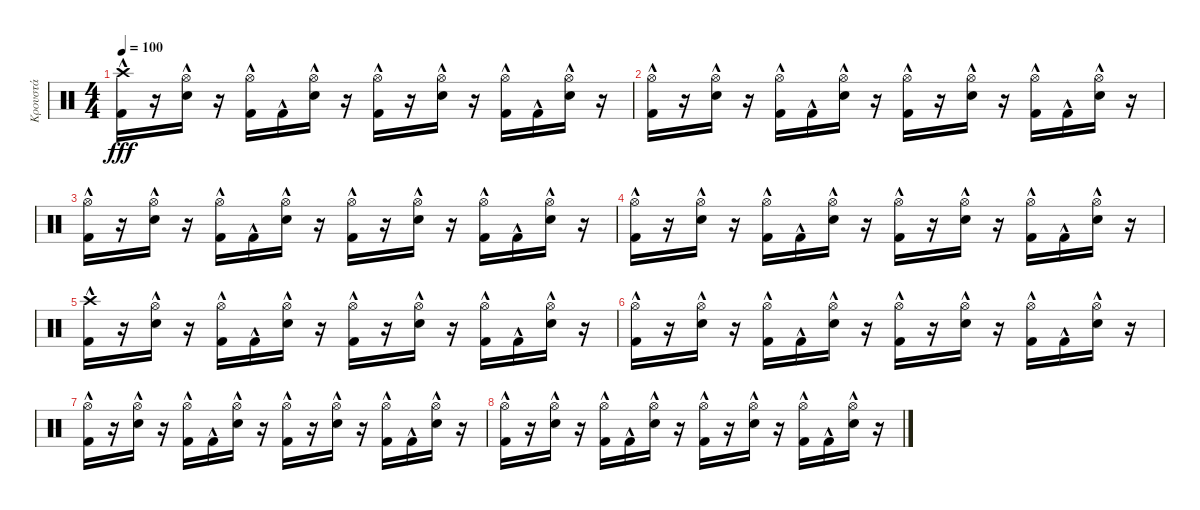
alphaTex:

\track ("Κρουστά" "Κρουστά") {instrument percussion}
\staff {score}
\articulation defaults
\ts (4 4)
\tempo 100
\clef neutral
\ks c
("Crash high (hit)" "Kick (hit) 2"{hac}).16{dy fff} r.16 ("Hi-Hat (open)" "Electric Snare (hit)"{hac}).16 r.16 ("Hi-Hat (open)" "Kick (hit) 2"{hac}).16 "Kick (hit) 2"{hac}.16 ("Hi-Hat (open)" "Electric Snare (hit)"{hac}).16 r.16 ("Hi-Hat (open)" "Kick (hit) 2"{hac}).16 r.16 ("Hi-Hat (open)" "Electric Snare (hit)"{hac}).16 r.16 ("Hi-Hat (open)" "Kick (hit) 2"{hac}).16 "Kick (hit) 2"{hac}.16 ("Hi-Hat (open)" "Electric Snare (hit)"{hac}).16 r.16 |
("Hi-Hat (open)" "Kick (hit) 2"{hac}).16 r.16 ("Hi-Hat (open)" "Electric Snare (hit)"{hac}).16 r.16 ("Hi-Hat (open)" "Kick (hit) 2"{hac}).16 "Kick (hit) 2"{hac}.16 ("Hi-Hat (open)" "Electric Snare (hit)"{hac}).16 r.16 ("Hi-Hat (open)" "Kick (hit) 2"{hac}).16 r.16 ("Hi-Hat (open)" "Electric Snare (hit)"{hac}).16 r.16 ("Hi-Hat (open)" "Kick (hit) 2"{hac}).16 "Kick (hit) 2"{hac}.16 ("Hi-Hat (open)" "Electric Snare (hit)"{hac}).16 r.16 |
("Hi-Hat (open)" "Kick (hit) 2"{hac}).16 r.16 ("Hi-Hat (open)" "Electric Snare (hit)"{hac}).16 r.16 ("Hi-Hat (open)" "Kick (hit) 2"{hac}).16 "Kick (hit) 2"{hac}.16 ("Hi-Hat (open)" "Electric Snare (hit)"{hac}).16 r.16 ("Hi-Hat (open)" "Kick (hit) 2"{hac}).16 r.16 ("Hi-Hat (open)" "Electric Snare (hit)"{hac}).16 r.16 ("Hi-Hat (open)" "Kick (hit) 2"{hac}).16 "Kick (hit) 2"{hac}.16 ("Hi-Hat (open)" "Electric Snare (hit)"{hac}).16 r.16 |
("Hi-Hat (open)" "Kick (hit) 2"{hac}).16 r.16 ("Hi-Hat (open)" "Electric Snare (hit)"{hac}).16 r.16 ("Hi-Hat (open)" "Kick (hit) 2"{hac}).16 "Kick (hit) 2"{hac}.16 ("Hi-Hat (open)" "Electric Snare (hit)"{hac}).16 r.16 ("Hi-Hat (open)" "Kick (hit) 2"{hac}).16 r.16 ("Hi-Hat (open)" "Electric Snare (hit)"{hac}).16 r.16 ("Hi-Hat (open)" "Kick (hit) 2"{hac}).16 "Kick (hit) 2"{hac}.16 ("Hi-Hat (open)" "Electric Snare (hit)"{hac}).16 r.16 |
("Crash high (hit)" "Kick (hit) 2"{hac}).16 r.16 ("Hi-Hat (open)" "Electric Snare (hit)"{hac}).16 r.16 ("Hi-Hat (open)" "Kick (hit) 2"{hac}).16 "Kick (hit) 2"{hac}.16 ("Hi-Hat (open)" "Electric Snare (hit)"{hac}).16 r.16 ("Hi-Hat (open)" "Kick (hit) 2"{hac}).16 r.16 ("Hi-Hat (open)" "Electric Snare (hit)"{hac}).16 r.16 ("Hi-Hat (open)" "Kick (hit) 2"{hac}).16 "Kick (hit) 2"{hac}.16 ("Hi-Hat (open)" "Electric Snare (hit)"{hac}).16 r.16 |
("Hi-Hat (open)" "Kick (hit) 2"{hac}).16 r.16 ("Hi-Hat (open)" "Electric Snare (hit)"{hac}).16 r.16 ("Hi-Hat (open)" "Kick (hit) 2"{hac}).16 "Kick (hit) 2"{hac}.16 ("Hi-Hat (open)" "Electric Snare (hit)"{hac}).16 r.16 ("Hi-Hat (open)" "Kick (hit) 2"{hac}).16 r.16 ("Hi-Hat (open)" "Electric Snare (hit)"{hac}).16 r.16 ("Hi-Hat (open)" "Kick (hit) 2"{hac}).16 "Kick (hit) 2"{hac}.16 ("Hi-Hat (open)" "Electric Snare (hit)"{hac}).16 r.16 |
("Hi-Hat (open)" "Kick (hit) 2"{hac}).16 r.16 ("Hi-Hat (open)" "Electric Snare (hit)"{hac}).16 r.16 ("Hi-Hat (open)" "Kick (hit) 2"{hac}).16 "Kick (hit) 2"{hac}.16 ("Hi-Hat (open)" "Electric Snare (hit)"{hac}).16 r.16 ("Hi-Hat (open)" "Kick (hit) 2"{hac}).16 r.16 ("Hi-Hat (open)" "Electric Snare (hit)"{hac}).16 r.16 ("Hi-Hat (open)" "Kick (hit) 2"{hac}).16 "Kick (hit) 2"{hac}.16 ("Hi-Hat (open)" "Electric Snare (hit)"{hac}).16 r.16 |
("Hi-Hat (open)" "Kick (hit) 2"{hac}).16 r.16 ("Hi-Hat (open)" "Electric Snare (hit)"{hac}).16 r.16 ("Hi-Hat (open)" "Kick (hit) 2"{hac}).16 "Kick (hit) 2"{hac}.16 ("Hi-Hat (open)" "Electric Snare (hit)"{hac}).16 r.16 ("Hi-Hat (open)" "Kick (hit) 2"{hac}).16 r.16 ("Hi-Hat (open)" "Electric Snare (hit)"{hac}).16 r.16 ("Hi-Hat (open)" "Kick (hit) 2"{hac}).16 "Kick (hit) 2"{hac}.16 ("Hi-Hat (open)" "Electric Snare (hit)"{hac}).16 r.16
